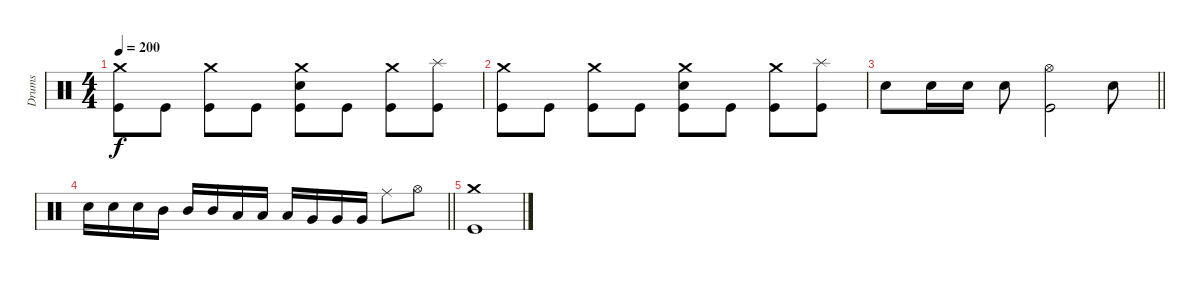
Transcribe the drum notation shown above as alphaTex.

\track ("Drums" "Drums") {instrument percussion}
\staff {score}
\articulation defaults
\ts (4 4)
\tempo 200
\clef neutral
\ks c
("Crash medium (hit)" "Kick (hit)").8{dy f} "Kick (hit)".8 ("Crash medium (hit)" "Kick (hit)").8 "Kick (hit)".8 ("Crash medium (hit)" "Snare (hit) 2" "Kick (hit)").8 "Kick (hit)".8 ("Crash medium (hit)" "Kick (hit)").8 ("Splash (hit)" "Kick (hit)").8 |
("Crash medium (hit)" "Kick (hit)").8 "Kick (hit)".8 ("Crash medium (hit)" "Kick (hit)").8 "Kick (hit)".8 ("Crash medium (hit)" "Snare (hit) 2" "Kick (hit)").8 "Kick (hit)".8 ("Crash medium (hit)" "Kick (hit)").8 ("Splash (hit)" "Kick (hit)").8 |
\barLineRight lightlight "Snare (hit) 2".8 "Snare (hit) 2".16 "Snare (hit) 2".16 "Snare (hit) 2".8
("Hi-Hat (open)" "Kick (hit)").2 "Snare (hit) 2".8 |
\barLineRight lightlight "Snare (hit) 2".16 "Snare (hit) 2".16 "Snare (hit) 2".16 "Mid Tom (hit)".16 "Mid Tom (hit)".16 "Mid Tom (hit)".16 "Low Tom (hit)".16 "Low Tom (hit)".16 "Low Tom (hit)".16 "Very Low Tom (hit)".16 "Very Low Tom (hit)".16 "Very Low Tom (hit)".16 "Ride (middle)".8 "Hi-Hat (open)".8
|
("Crash medium (hit)" "Kick (hit)").1
